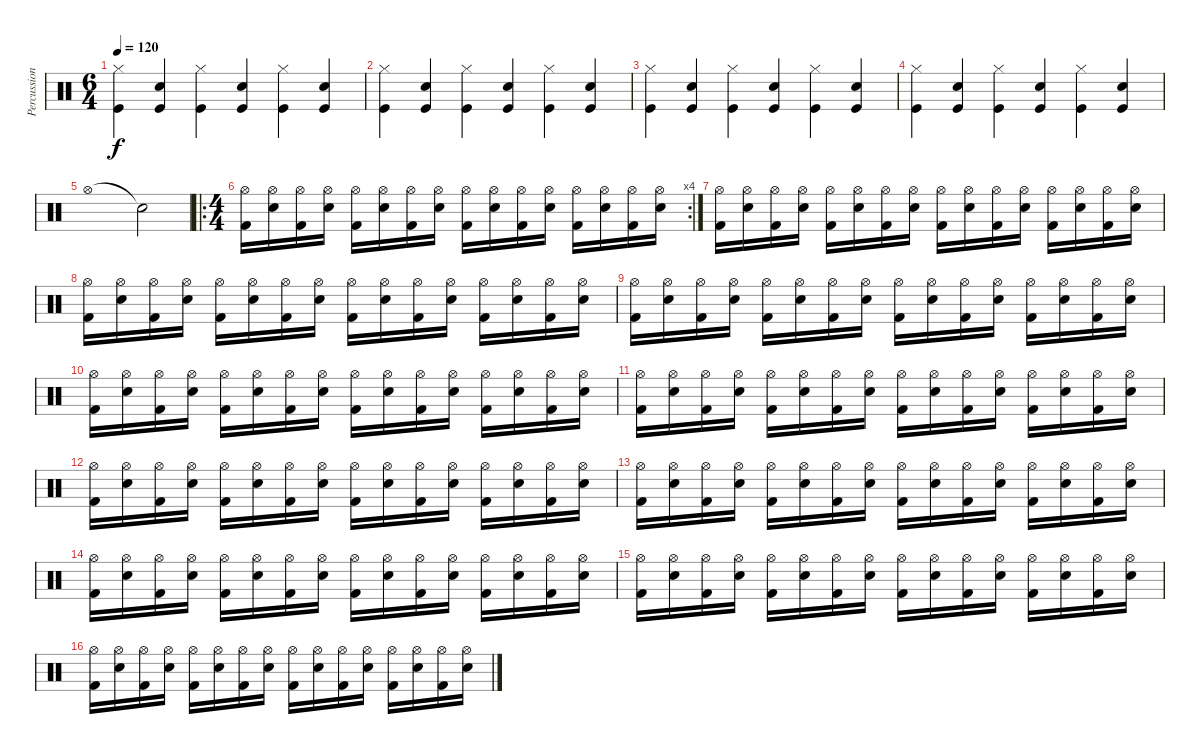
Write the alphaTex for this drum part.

\track ("Percussion" "Percussion") {instrument percussion}
\staff {score}
\articulation defaults
\ts (6 4)
\tempo 120
\clef neutral
\ks c
("Kick (hit)" "Hi-Hat (closed)").4{dy f} ("Kick (hit)" "Snare (hit) 2").4 ("Kick (hit)" "Hi-Hat (closed)").4 ("Kick (hit)" "Snare (hit) 2").4 ("Kick (hit)" "Hi-Hat (closed)").4 ("Kick (hit)" "Snare (hit) 2").4 |
("Kick (hit)" "Hi-Hat (closed)").4 ("Kick (hit)" "Snare (hit) 2").4 ("Kick (hit)" "Hi-Hat (closed)").4 ("Kick (hit)" "Snare (hit) 2").4 ("Kick (hit)" "Hi-Hat (closed)").4 ("Kick (hit)" "Snare (hit) 2").4 |
("Kick (hit)" "Hi-Hat (closed)").4 ("Kick (hit)" "Snare (hit) 2").4 ("Kick (hit)" "Hi-Hat (closed)").4 ("Kick (hit)" "Snare (hit) 2").4 ("Kick (hit)" "Hi-Hat (closed)").4 ("Kick (hit)" "Snare (hit) 2").4 |
("Kick (hit)" "Hi-Hat (closed)").4 ("Kick (hit)" "Snare (hit) 2").4 ("Kick (hit)" "Hi-Hat (closed)").4 ("Kick (hit)" "Snare (hit) 2").4 ("Kick (hit)" "Hi-Hat (closed)").4 ("Kick (hit)" "Snare (hit) 2").4 |
"Hi-Hat (open)".1 "Snare (hit)"{t}.2 |
\ro
\rc 4
\ts (4 4)
("Hi-Hat (open)" "Kick (hit) 2").16 ("Hi-Hat (open)" "Snare (hit) 2").16 ("Hi-Hat (open)" "Kick (hit) 2").16 ("Hi-Hat (open)" "Snare (hit) 2").16 ("Hi-Hat (open)" "Kick (hit) 2").16 ("Hi-Hat (open)" "Snare (hit) 2").16 ("Hi-Hat (open)" "Kick (hit) 2").16 ("Hi-Hat (open)" "Snare (hit) 2").16 ("Hi-Hat (open)" "Kick (hit) 2").16 ("Hi-Hat (open)" "Snare (hit) 2").16 ("Hi-Hat (open)" "Kick (hit) 2").16 ("Hi-Hat (open)" "Snare (hit) 2").16 ("Hi-Hat (open)" "Kick (hit) 2").16 ("Hi-Hat (open)" "Snare (hit) 2").16 ("Hi-Hat (open)" "Kick (hit) 2").16 ("Hi-Hat (open)" "Snare (hit) 2").16 |
("Hi-Hat (open)" "Kick (hit) 2").16 ("Hi-Hat (open)" "Snare (hit) 2").16 ("Hi-Hat (open)" "Kick (hit) 2").16 ("Hi-Hat (open)" "Snare (hit) 2").16 ("Hi-Hat (open)" "Kick (hit) 2").16 ("Hi-Hat (open)" "Snare (hit) 2").16 ("Hi-Hat (open)" "Kick (hit) 2").16 ("Hi-Hat (open)" "Snare (hit) 2").16 ("Hi-Hat (open)" "Kick (hit) 2").16 ("Hi-Hat (open)" "Snare (hit) 2").16 ("Hi-Hat (open)" "Kick (hit) 2").16 ("Hi-Hat (open)" "Snare (hit) 2").16 ("Hi-Hat (open)" "Kick (hit) 2").16 ("Hi-Hat (open)" "Snare (hit) 2").16 ("Hi-Hat (open)" "Kick (hit) 2").16 ("Hi-Hat (open)" "Snare (hit) 2").16 |
("Hi-Hat (open)" "Kick (hit) 2").16 ("Hi-Hat (open)" "Snare (hit) 2").16 ("Hi-Hat (open)" "Kick (hit) 2").16 ("Hi-Hat (open)" "Snare (hit) 2").16 ("Hi-Hat (open)" "Kick (hit) 2").16 ("Hi-Hat (open)" "Snare (hit) 2").16 ("Hi-Hat (open)" "Kick (hit) 2").16 ("Hi-Hat (open)" "Snare (hit) 2").16 ("Hi-Hat (open)" "Kick (hit) 2").16 ("Hi-Hat (open)" "Snare (hit) 2").16 ("Hi-Hat (open)" "Kick (hit) 2").16 ("Hi-Hat (open)" "Snare (hit) 2").16 ("Hi-Hat (open)" "Kick (hit) 2").16 ("Hi-Hat (open)" "Snare (hit) 2").16 ("Hi-Hat (open)" "Kick (hit) 2").16 ("Hi-Hat (open)" "Snare (hit) 2").16 |
("Hi-Hat (open)" "Kick (hit) 2").16 ("Hi-Hat (open)" "Snare (hit) 2").16 ("Hi-Hat (open)" "Kick (hit) 2").16 ("Hi-Hat (open)" "Snare (hit) 2").16 ("Hi-Hat (open)" "Kick (hit) 2").16 ("Hi-Hat (open)" "Snare (hit) 2").16 ("Hi-Hat (open)" "Kick (hit) 2").16 ("Hi-Hat (open)" "Snare (hit) 2").16 ("Hi-Hat (open)" "Kick (hit) 2").16 ("Hi-Hat (open)" "Snare (hit) 2").16 ("Hi-Hat (open)" "Kick (hit) 2").16 ("Hi-Hat (open)" "Snare (hit) 2").16 ("Hi-Hat (open)" "Kick (hit) 2").16 ("Hi-Hat (open)" "Snare (hit) 2").16 ("Hi-Hat (open)" "Kick (hit) 2").16 ("Hi-Hat (open)" "Snare (hit) 2").16 |
("Hi-Hat (open)" "Kick (hit) 2").16 ("Hi-Hat (open)" "Snare (hit) 2").16 ("Hi-Hat (open)" "Kick (hit) 2").16 ("Hi-Hat (open)" "Snare (hit) 2").16 ("Hi-Hat (open)" "Kick (hit) 2").16 ("Hi-Hat (open)" "Snare (hit) 2").16 ("Hi-Hat (open)" "Kick (hit) 2").16 ("Hi-Hat (open)" "Snare (hit) 2").16 ("Hi-Hat (open)" "Kick (hit) 2").16 ("Hi-Hat (open)" "Snare (hit) 2").16 ("Hi-Hat (open)" "Kick (hit) 2").16 ("Hi-Hat (open)" "Snare (hit) 2").16 ("Hi-Hat (open)" "Kick (hit) 2").16 ("Hi-Hat (open)" "Snare (hit) 2").16 ("Hi-Hat (open)" "Kick (hit) 2").16 ("Hi-Hat (open)" "Snare (hit) 2").16 |
("Hi-Hat (open)" "Kick (hit) 2").16 ("Hi-Hat (open)" "Snare (hit) 2").16 ("Hi-Hat (open)" "Kick (hit) 2").16 ("Hi-Hat (open)" "Snare (hit) 2").16 ("Hi-Hat (open)" "Kick (hit) 2").16 ("Hi-Hat (open)" "Snare (hit) 2").16 ("Hi-Hat (open)" "Kick (hit) 2").16 ("Hi-Hat (open)" "Snare (hit) 2").16 ("Hi-Hat (open)" "Kick (hit) 2").16 ("Hi-Hat (open)" "Snare (hit) 2").16 ("Hi-Hat (open)" "Kick (hit) 2").16 ("Hi-Hat (open)" "Snare (hit) 2").16 ("Hi-Hat (open)" "Kick (hit) 2").16 ("Hi-Hat (open)" "Snare (hit) 2").16 ("Hi-Hat (open)" "Kick (hit) 2").16 ("Hi-Hat (open)" "Snare (hit) 2").16 |
("Hi-Hat (open)" "Kick (hit) 2").16 ("Hi-Hat (open)" "Snare (hit) 2").16 ("Hi-Hat (open)" "Kick (hit) 2").16 ("Hi-Hat (open)" "Snare (hit) 2").16 ("Hi-Hat (open)" "Kick (hit) 2").16 ("Hi-Hat (open)" "Snare (hit) 2").16 ("Hi-Hat (open)" "Kick (hit) 2").16 ("Hi-Hat (open)" "Snare (hit) 2").16 ("Hi-Hat (open)" "Kick (hit) 2").16 ("Hi-Hat (open)" "Snare (hit) 2").16 ("Hi-Hat (open)" "Kick (hit) 2").16 ("Hi-Hat (open)" "Snare (hit) 2").16 ("Hi-Hat (open)" "Kick (hit) 2").16 ("Hi-Hat (open)" "Snare (hit) 2").16 ("Hi-Hat (open)" "Kick (hit) 2").16 ("Hi-Hat (open)" "Snare (hit) 2").16 |
("Hi-Hat (open)" "Kick (hit) 2").16 ("Hi-Hat (open)" "Snare (hit) 2").16 ("Hi-Hat (open)" "Kick (hit) 2").16 ("Hi-Hat (open)" "Snare (hit) 2").16 ("Hi-Hat (open)" "Kick (hit) 2").16 ("Hi-Hat (open)" "Snare (hit) 2").16 ("Hi-Hat (open)" "Kick (hit) 2").16 ("Hi-Hat (open)" "Snare (hit) 2").16 ("Hi-Hat (open)" "Kick (hit) 2").16 ("Hi-Hat (open)" "Snare (hit) 2").16 ("Hi-Hat (open)" "Kick (hit) 2").16 ("Hi-Hat (open)" "Snare (hit) 2").16 ("Hi-Hat (open)" "Kick (hit) 2").16 ("Hi-Hat (open)" "Snare (hit) 2").16 ("Hi-Hat (open)" "Kick (hit) 2").16 ("Hi-Hat (open)" "Snare (hit) 2").16 |
("Hi-Hat (open)" "Kick (hit) 2").16 ("Hi-Hat (open)" "Snare (hit) 2").16 ("Hi-Hat (open)" "Kick (hit) 2").16 ("Hi-Hat (open)" "Snare (hit) 2").16 ("Hi-Hat (open)" "Kick (hit) 2").16 ("Hi-Hat (open)" "Snare (hit) 2").16 ("Hi-Hat (open)" "Kick (hit) 2").16 ("Hi-Hat (open)" "Snare (hit) 2").16 ("Hi-Hat (open)" "Kick (hit) 2").16 ("Hi-Hat (open)" "Snare (hit) 2").16 ("Hi-Hat (open)" "Kick (hit) 2").16 ("Hi-Hat (open)" "Snare (hit) 2").16 ("Hi-Hat (open)" "Kick (hit) 2").16 ("Hi-Hat (open)" "Snare (hit) 2").16 ("Hi-Hat (open)" "Kick (hit) 2").16 ("Hi-Hat (open)" "Snare (hit) 2").16 |
("Hi-Hat (open)" "Kick (hit) 2").16 ("Hi-Hat (open)" "Snare (hit) 2").16 ("Hi-Hat (open)" "Kick (hit) 2").16 ("Hi-Hat (open)" "Snare (hit) 2").16 ("Hi-Hat (open)" "Kick (hit) 2").16 ("Hi-Hat (open)" "Snare (hit) 2").16 ("Hi-Hat (open)" "Kick (hit) 2").16 ("Hi-Hat (open)" "Snare (hit) 2").16 ("Hi-Hat (open)" "Kick (hit) 2").16 ("Hi-Hat (open)" "Snare (hit) 2").16 ("Hi-Hat (open)" "Kick (hit) 2").16 ("Hi-Hat (open)" "Snare (hit) 2").16 ("Hi-Hat (open)" "Kick (hit) 2").16 ("Hi-Hat (open)" "Snare (hit) 2").16 ("Hi-Hat (open)" "Kick (hit) 2").16 ("Hi-Hat (open)" "Snare (hit) 2").16 |
("Hi-Hat (open)" "Kick (hit) 2").16 ("Hi-Hat (open)" "Snare (hit) 2").16 ("Hi-Hat (open)" "Kick (hit) 2").16 ("Hi-Hat (open)" "Snare (hit) 2").16 ("Hi-Hat (open)" "Kick (hit) 2").16 ("Hi-Hat (open)" "Snare (hit) 2").16 ("Hi-Hat (open)" "Kick (hit) 2").16 ("Hi-Hat (open)" "Snare (hit) 2").16 ("Hi-Hat (open)" "Kick (hit) 2").16 ("Hi-Hat (open)" "Snare (hit) 2").16 ("Hi-Hat (open)" "Kick (hit) 2").16 ("Hi-Hat (open)" "Snare (hit) 2").16 ("Hi-Hat (open)" "Kick (hit) 2").16 ("Hi-Hat (open)" "Snare (hit) 2").16 ("Hi-Hat (open)" "Kick (hit) 2").16 ("Hi-Hat (open)" "Snare (hit) 2").16
